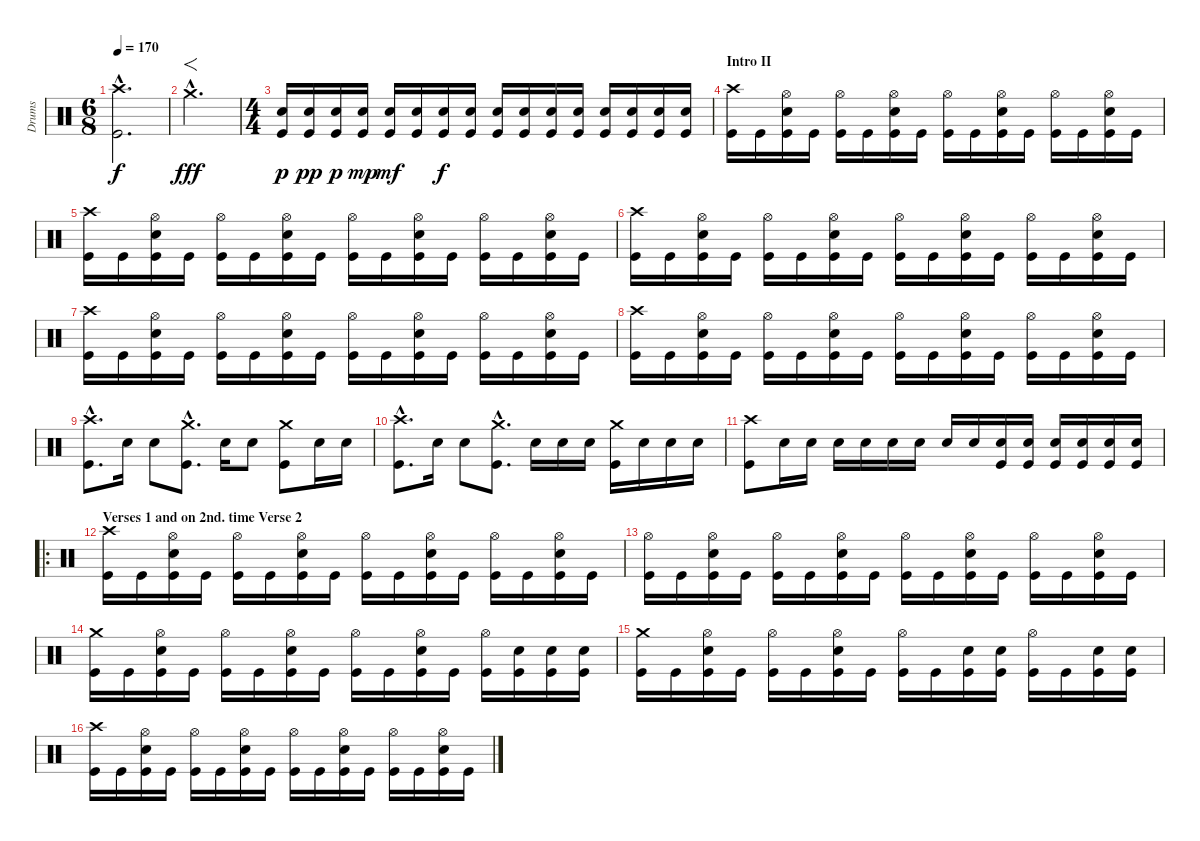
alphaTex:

\track ("Drums" "Drums") {instrument percussion}
\staff {score}
\articulation defaults
\ts (6 8)
\tempo 170
\clef neutral
\ks c
("Crash high (hit)"{hac} "Kick (hit)"{hac}).2{d dy f} |
"Crash medium (hit)"{hac}.2{f d dy fff} |
\ts (4 4)
("Electric Snare (hit)" "Kick (hit)").16{dy p} ("Electric Snare (hit)" "Kick (hit)").16{dy pp} ("Electric Snare (hit)" "Kick (hit)").16{dy p} ("Electric Snare (hit)" "Kick (hit)").16{dy mp} ("Electric Snare (hit)" "Kick (hit)").16{dy mf} ("Electric Snare (hit)" "Kick (hit)").16 ("Electric Snare (hit)" "Kick (hit)").16{dy f} ("Electric Snare (hit)" "Kick (hit)").16 ("Electric Snare (hit)" "Kick (hit)").16 ("Electric Snare (hit)" "Kick (hit)").16 ("Electric Snare (hit)" "Kick (hit)").16 ("Electric Snare (hit)" "Kick (hit)").16 ("Electric Snare (hit)" "Kick (hit)").16 ("Electric Snare (hit)" "Kick (hit)").16 ("Electric Snare (hit)" "Kick (hit)").16 ("Electric Snare (hit)" "Kick (hit)").16 |
\section ("" "Intro II")
("Crash high (hit)" "Kick (hit)").16 "Kick (hit)".16 ("Hi-Hat (open)" "Electric Snare (hit)" "Kick (hit)").16 "Kick (hit)".16 ("Hi-Hat (open)" "Kick (hit)").16 "Kick (hit)".16 ("Hi-Hat (open)" "Electric Snare (hit)" "Kick (hit)").16 "Kick (hit)".16 ("Hi-Hat (open)" "Kick (hit)").16 "Kick (hit)".16 ("Hi-Hat (open)" "Electric Snare (hit)" "Kick (hit)").16 "Kick (hit)".16 ("Hi-Hat (open)" "Kick (hit)").16 "Kick (hit)".16 ("Hi-Hat (open)" "Electric Snare (hit)" "Kick (hit)").16 "Kick (hit)".16 |
("Crash high (hit)" "Kick (hit)").16 "Kick (hit)".16 ("Hi-Hat (open)" "Electric Snare (hit)" "Kick (hit)").16 "Kick (hit)".16 ("Hi-Hat (open)" "Kick (hit)").16 "Kick (hit)".16 ("Hi-Hat (open)" "Electric Snare (hit)" "Kick (hit)").16 "Kick (hit)".16 ("Hi-Hat (open)" "Kick (hit)").16 "Kick (hit)".16 ("Hi-Hat (open)" "Electric Snare (hit)" "Kick (hit)").16 "Kick (hit)".16 ("Hi-Hat (open)" "Kick (hit)").16 "Kick (hit)".16 ("Hi-Hat (open)" "Electric Snare (hit)" "Kick (hit)").16 "Kick (hit)".16 |
("Crash high (hit)" "Kick (hit)").16 "Kick (hit)".16 ("Hi-Hat (open)" "Electric Snare (hit)" "Kick (hit)").16 "Kick (hit)".16 ("Hi-Hat (open)" "Kick (hit)").16 "Kick (hit)".16 ("Hi-Hat (open)" "Electric Snare (hit)" "Kick (hit)").16 "Kick (hit)".16 ("Hi-Hat (open)" "Kick (hit)").16 "Kick (hit)".16 ("Hi-Hat (open)" "Electric Snare (hit)" "Kick (hit)").16 "Kick (hit)".16 ("Hi-Hat (open)" "Kick (hit)").16 "Kick (hit)".16 ("Hi-Hat (open)" "Electric Snare (hit)" "Kick (hit)").16 "Kick (hit)".16 |
("Crash high (hit)" "Kick (hit)").16 "Kick (hit)".16 ("Hi-Hat (open)" "Electric Snare (hit)" "Kick (hit)").16 "Kick (hit)".16 ("Hi-Hat (open)" "Kick (hit)").16 "Kick (hit)".16 ("Hi-Hat (open)" "Electric Snare (hit)" "Kick (hit)").16 "Kick (hit)".16 ("Hi-Hat (open)" "Kick (hit)").16 "Kick (hit)".16 ("Hi-Hat (open)" "Electric Snare (hit)" "Kick (hit)").16 "Kick (hit)".16 ("Hi-Hat (open)" "Kick (hit)").16 "Kick (hit)".16 ("Hi-Hat (open)" "Electric Snare (hit)" "Kick (hit)").16 "Kick (hit)".16 |
("Crash high (hit)" "Kick (hit)").16 "Kick (hit)".16 ("Hi-Hat (open)" "Electric Snare (hit)" "Kick (hit)").16 "Kick (hit)".16 ("Hi-Hat (open)" "Kick (hit)").16 "Kick (hit)".16 ("Hi-Hat (open)" "Electric Snare (hit)" "Kick (hit)").16 "Kick (hit)".16 ("Hi-Hat (open)" "Kick (hit)").16 "Kick (hit)".16 ("Hi-Hat (open)" "Electric Snare (hit)" "Kick (hit)").16 "Kick (hit)".16 ("Hi-Hat (open)" "Kick (hit)").16 "Kick (hit)".16 ("Hi-Hat (open)" "Electric Snare (hit)" "Kick (hit)").16 "Kick (hit)".16 |
("Crash high (hit)"{hac} "Kick (hit)"{hac}).8{d} "Electric Snare (hit)".16 "Electric Snare (hit)".8 ("Crash medium (hit)"{hac} "Kick (hit)"{hac}).8{d} "Electric Snare (hit)".16 "Electric Snare (hit)".8 ("Crash medium (hit)" "Kick (hit)").8 "Electric Snare (hit)".16 "Electric Snare (hit)".16 |
("Crash high (hit)"{hac} "Kick (hit)"{hac}).8{d} "Electric Snare (hit)".16 "Electric Snare (hit)".8 ("Crash medium (hit)"{hac} "Kick (hit)"{hac}).8{d} "Electric Snare (hit)".16 "Electric Snare (hit)".16 "Electric Snare (hit)".16 ("Crash medium (hit)" "Kick (hit)").16 "Electric Snare (hit)".16 "Electric Snare (hit)".16 "Electric Snare (hit)".16 |
("Crash high (hit)" "Kick (hit)").8 "Electric Snare (hit)".16 "Electric Snare (hit)".16 "Electric Snare (hit)".16 "Electric Snare (hit)".16 "Electric Snare (hit)".16 "Electric Snare (hit)".16 "Electric Snare (hit)".16 "Electric Snare (hit)".16 ("Electric Snare (hit)" "Kick (hit)").16 ("Electric Snare (hit)" "Kick (hit)").16 ("Electric Snare (hit)" "Kick (hit)").16 ("Electric Snare (hit)" "Kick (hit)").16 ("Electric Snare (hit)" "Kick (hit)").16 ("Electric Snare (hit)" "Kick (hit)").16 |
\ro
\section ("" "Verses 1 and on 2nd. time Verse 2")
("Crash high (hit)" "Kick (hit)").16 "Kick (hit)".16 ("Hi-Hat (open)" "Electric Snare (hit)" "Kick (hit)").16 "Kick (hit)".16 ("Hi-Hat (open)" "Kick (hit)").16 "Kick (hit)".16 ("Hi-Hat (open)" "Electric Snare (hit)" "Kick (hit)").16 "Kick (hit)".16 ("Hi-Hat (open)" "Kick (hit)").16 "Kick (hit)".16 ("Hi-Hat (open)" "Electric Snare (hit)" "Kick (hit)").16 "Kick (hit)".16 ("Hi-Hat (open)" "Kick (hit)").16 "Kick (hit)".16 ("Hi-Hat (open)" "Electric Snare (hit)" "Kick (hit)").16 "Kick (hit)".16 |
("Hi-Hat (open)" "Kick (hit)").16 "Kick (hit)".16 ("Hi-Hat (open)" "Electric Snare (hit)" "Kick (hit)").16 "Kick (hit)".16 ("Hi-Hat (open)" "Kick (hit)").16 "Kick (hit)".16 ("Hi-Hat (open)" "Electric Snare (hit)" "Kick (hit)").16 "Kick (hit)".16 ("Hi-Hat (open)" "Kick (hit)").16 "Kick (hit)".16 ("Hi-Hat (open)" "Electric Snare (hit)" "Kick (hit)").16 "Kick (hit)".16 ("Hi-Hat (open)" "Kick (hit)").16 "Kick (hit)".16 ("Hi-Hat (open)" "Electric Snare (hit)" "Kick (hit)").16 "Kick (hit)".16 |
("Crash medium (hit)" "Kick (hit)").16 "Kick (hit)".16 ("Hi-Hat (open)" "Electric Snare (hit)" "Kick (hit)").16 "Kick (hit)".16 ("Hi-Hat (open)" "Kick (hit)").16 "Kick (hit)".16 ("Hi-Hat (open)" "Electric Snare (hit)" "Kick (hit)").16 "Kick (hit)".16 ("Hi-Hat (open)" "Kick (hit)").16 "Kick (hit)".16 ("Hi-Hat (open)" "Electric Snare (hit)" "Kick (hit)").16 "Kick (hit)".16 ("Hi-Hat (open)" "Kick (hit)").16 ("Electric Snare (hit)" "Kick (hit)").16 ("Electric Snare (hit)" "Kick (hit)").16 ("Electric Snare (hit)" "Kick (hit)").16 |
("Crash medium (hit)" "Kick (hit)").16 "Kick (hit)".16 ("Hi-Hat (open)" "Electric Snare (hit)" "Kick (hit)").16 "Kick (hit)".16 ("Hi-Hat (open)" "Kick (hit)").16 "Kick (hit)".16 ("Hi-Hat (open)" "Electric Snare (hit)" "Kick (hit)").16 "Kick (hit)".16 ("Hi-Hat (open)" "Kick (hit)").16 "Kick (hit)".16 ("Electric Snare (hit)" "Kick (hit)").16 ("Electric Snare (hit)" "Kick (hit)").16 ("Hi-Hat (open)" "Kick (hit)").16 "Kick (hit)".16 ("Electric Snare (hit)" "Kick (hit)").16 ("Electric Snare (hit)" "Kick (hit)").16 |
("Crash high (hit)" "Kick (hit)").16 "Kick (hit)".16 ("Hi-Hat (open)" "Electric Snare (hit)" "Kick (hit)").16 "Kick (hit)".16 ("Hi-Hat (open)" "Kick (hit)").16 "Kick (hit)".16 ("Hi-Hat (open)" "Electric Snare (hit)" "Kick (hit)").16 "Kick (hit)".16 ("Hi-Hat (open)" "Kick (hit)").16 "Kick (hit)".16 ("Hi-Hat (open)" "Electric Snare (hit)" "Kick (hit)").16 "Kick (hit)".16 ("Hi-Hat (open)" "Kick (hit)").16 "Kick (hit)".16 ("Hi-Hat (open)" "Electric Snare (hit)" "Kick (hit)").16 "Kick (hit)".16
